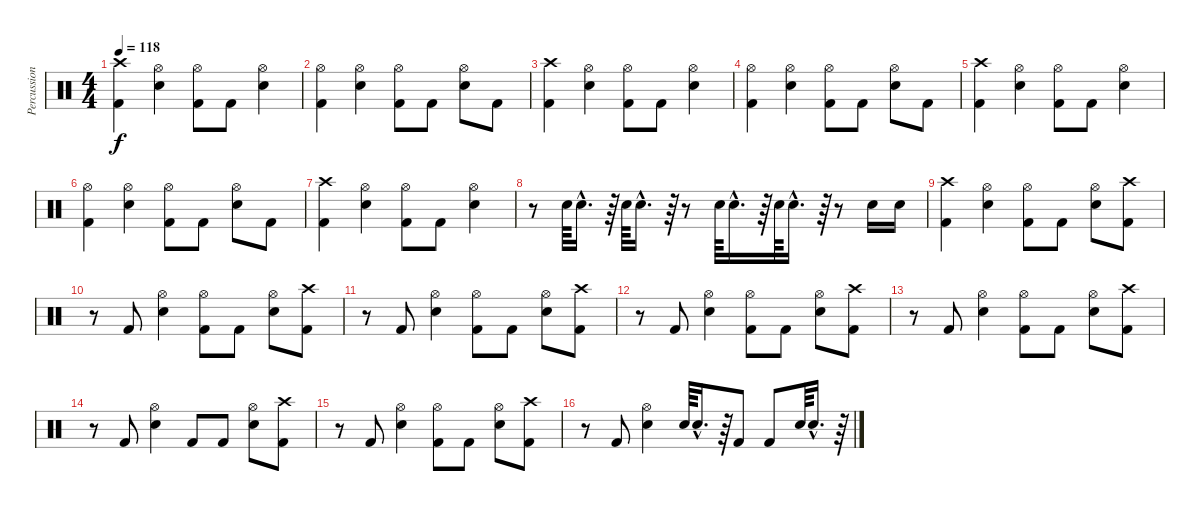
\track ("Percussion" "Percussion") {instrument percussion}
\staff {score}
\articulation defaults
\ts (4 4)
\tempo 118
\clef neutral
\ks c
("Crash high (hit)" "Kick (hit) 2").4{dy f} ("Hi-Hat (open)" "Snare (hit) 2").4 ("Hi-Hat (open)" "Kick (hit) 2").8 "Kick (hit) 2".8 ("Hi-Hat (open)" "Snare (hit) 2").4 |
("Hi-Hat (open)" "Kick (hit) 2").4 ("Hi-Hat (open)" "Snare (hit) 2").4 ("Hi-Hat (open)" "Kick (hit) 2").8 "Kick (hit) 2".8 ("Hi-Hat (open)" "Snare (hit) 2").8 "Kick (hit) 2".8 |
("Crash high (hit)" "Kick (hit) 2").4 ("Hi-Hat (open)" "Snare (hit) 2").4 ("Hi-Hat (open)" "Kick (hit) 2").8 "Kick (hit) 2".8 ("Hi-Hat (open)" "Snare (hit) 2").4 |
("Hi-Hat (open)" "Kick (hit) 2").4 ("Hi-Hat (open)" "Snare (hit) 2").4 ("Hi-Hat (open)" "Kick (hit) 2").8 "Kick (hit) 2".8 ("Hi-Hat (open)" "Snare (hit) 2").8 "Kick (hit) 2".8 |
("Crash high (hit)" "Kick (hit) 2").4 ("Hi-Hat (open)" "Snare (hit) 2").4 ("Hi-Hat (open)" "Kick (hit) 2").8 "Kick (hit) 2".8 ("Hi-Hat (open)" "Snare (hit) 2").4 |
("Hi-Hat (open)" "Kick (hit) 2").4 ("Hi-Hat (open)" "Snare (hit) 2").4 ("Hi-Hat (open)" "Kick (hit) 2").8 "Kick (hit) 2".8 ("Hi-Hat (open)" "Snare (hit) 2").8 "Kick (hit) 2".8 |
("Crash high (hit)" "Kick (hit) 2").4 ("Hi-Hat (open)" "Snare (hit) 2").4 ("Hi-Hat (open)" "Kick (hit) 2").8 "Kick (hit) 2".8 ("Hi-Hat (open)" "Snare (hit) 2").4 |
r.8 "Snare (hit) 2".64 "Snare (hit) 2"{hac}.16{d} r.64 "Snare (hit) 2".64 "Snare (hit) 2"{hac}.16{d} r.64 r.8 "Snare (hit) 2".64 "Snare (hit) 2"{hac}.16{d} r.64 "Snare (hit) 2".64 "Snare (hit) 2"{hac}.16{d} r.64 r.8 "Snare (hit) 2".16 "Snare (hit) 2".16 |
("Crash high (hit)" "Kick (hit) 2").4 ("Hi-Hat (open)" "Snare (hit) 2").4 ("Hi-Hat (open)" "Kick (hit) 2").8 "Kick (hit) 2".8 ("Hi-Hat (open)" "Snare (hit) 2").8 ("Crash high (hit)" "Kick (hit) 2").8 |
r.8 "Kick (hit) 2".8 ("Hi-Hat (open)" "Snare (hit) 2").4 ("Hi-Hat (open)" "Kick (hit) 2").8 "Kick (hit) 2".8 ("Hi-Hat (open)" "Snare (hit) 2").8 ("Crash high (hit)" "Kick (hit) 2").8 |
r.8 "Kick (hit) 2".8 ("Hi-Hat (open)" "Snare (hit) 2").4 ("Hi-Hat (open)" "Kick (hit) 2").8 "Kick (hit) 2".8 ("Hi-Hat (open)" "Snare (hit) 2").8 ("Crash high (hit)" "Kick (hit) 2").8 |
r.8 "Kick (hit) 2".8 ("Hi-Hat (open)" "Snare (hit) 2").4 ("Hi-Hat (open)" "Kick (hit) 2").8 "Kick (hit) 2".8 ("Hi-Hat (open)" "Snare (hit) 2").8 ("Crash high (hit)" "Kick (hit) 2").8 |
r.8 "Kick (hit) 2".8 ("Hi-Hat (open)" "Snare (hit) 2").4 ("Hi-Hat (open)" "Kick (hit) 2").8 "Kick (hit) 2".8 ("Hi-Hat (open)" "Snare (hit) 2").8 ("Crash high (hit)" "Kick (hit) 2").8 |
r.8 "Kick (hit) 2".8 ("Hi-Hat (open)" "Snare (hit) 2").4 "Kick (hit) 2".8 "Kick (hit) 2".8 ("Hi-Hat (open)" "Snare (hit) 2").8 ("Crash high (hit)" "Kick (hit) 2").8 |
r.8 "Kick (hit) 2".8 ("Hi-Hat (open)" "Snare (hit) 2").4 ("Hi-Hat (open)" "Kick (hit) 2").8 "Kick (hit) 2".8 ("Hi-Hat (open)" "Snare (hit) 2").8 ("Crash high (hit)" "Kick (hit) 2").8 |
r.8 "Kick (hit) 2".8 ("Hi-Hat (open)" "Snare (hit) 2").4 "Snare (hit) 2".64 "Snare (hit) 2"{hac}.16{d} r.64 "Kick (hit) 2".8 "Kick (hit) 2".8 "Snare (hit) 2".64 "Snare (hit) 2"{hac}.16{d} r.64
